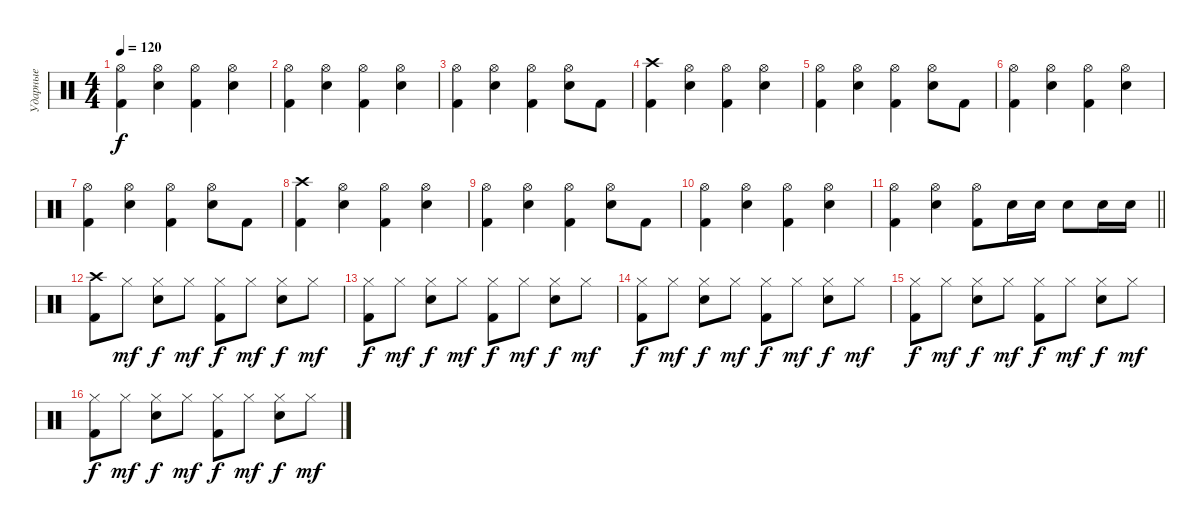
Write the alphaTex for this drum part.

\track ("Ударные" "Ударные") {instrument percussion}
\staff {score}
\articulation defaults
\ts (4 4)
\tempo 120
\clef neutral
\ks c
("Kick (hit) 2" "Hi-Hat (open)").4{dy f} ("Hi-Hat (open)" "Snare (hit) 2").4 ("Kick (hit) 2" "Hi-Hat (open)").4 ("Hi-Hat (open)" "Snare (hit) 2").4 |
("Kick (hit) 2" "Hi-Hat (open)").4 ("Hi-Hat (open)" "Snare (hit) 2").4 ("Kick (hit) 2" "Hi-Hat (open)").4 ("Hi-Hat (open)" "Snare (hit) 2").4 |
("Kick (hit) 2" "Hi-Hat (open)").4 ("Hi-Hat (open)" "Snare (hit) 2").4 ("Kick (hit) 2" "Hi-Hat (open)").4 ("Hi-Hat (open)" "Snare (hit) 2").8 "Kick (hit) 2".8 |
("Kick (hit) 2" "Crash high (hit)").4 ("Hi-Hat (open)" "Snare (hit) 2").4 ("Kick (hit) 2" "Hi-Hat (open)").4 ("Hi-Hat (open)" "Snare (hit) 2").4 |
("Kick (hit) 2" "Hi-Hat (open)").4 ("Hi-Hat (open)" "Snare (hit) 2").4 ("Kick (hit) 2" "Hi-Hat (open)").4 ("Hi-Hat (open)" "Snare (hit) 2").8 "Kick (hit) 2".8 |
("Kick (hit) 2" "Hi-Hat (open)").4 ("Hi-Hat (open)" "Snare (hit) 2").4 ("Kick (hit) 2" "Hi-Hat (open)").4 ("Hi-Hat (open)" "Snare (hit) 2").4 |
("Kick (hit) 2" "Hi-Hat (open)").4 ("Hi-Hat (open)" "Snare (hit) 2").4 ("Kick (hit) 2" "Hi-Hat (open)").4 ("Hi-Hat (open)" "Snare (hit) 2").8 "Kick (hit) 2".8 |
("Kick (hit) 2" "Crash high (hit)").4 ("Hi-Hat (open)" "Snare (hit) 2").4 ("Kick (hit) 2" "Hi-Hat (open)").4 ("Hi-Hat (open)" "Snare (hit) 2").4 |
("Kick (hit) 2" "Hi-Hat (open)").4 ("Hi-Hat (open)" "Snare (hit) 2").4 ("Kick (hit) 2" "Hi-Hat (open)").4 ("Hi-Hat (open)" "Snare (hit) 2").8 "Kick (hit) 2".8 |
("Kick (hit) 2" "Hi-Hat (open)").4 ("Hi-Hat (open)" "Snare (hit) 2").4 ("Kick (hit) 2" "Hi-Hat (open)").4 ("Hi-Hat (open)" "Snare (hit) 2").4 |
\barLineRight lightlight
("Kick (hit) 2" "Hi-Hat (open)").4 ("Hi-Hat (open)" "Snare (hit) 2").4 ("Kick (hit) 2" "Hi-Hat (open)").8 "Snare (hit) 2".16 "Snare (hit) 2".16 "Snare (hit) 2".8 "Snare (hit) 2".16 "Snare (hit) 2".16 |
("Kick (hit) 2" "Crash high (hit)").8 "Hi-Hat (closed)".8{dy mf} ("Hi-Hat (closed)" "Snare (hit) 2").8{dy f} "Hi-Hat (closed)".8{dy mf} ("Kick (hit) 2" "Hi-Hat (closed)").8{dy f} "Hi-Hat (closed)".8{dy mf} ("Hi-Hat (closed)" "Snare (hit) 2").8{dy f} "Hi-Hat (closed)".8{dy mf} |
("Kick (hit) 2" "Hi-Hat (closed)").8{dy f} "Hi-Hat (closed)".8{dy mf} ("Hi-Hat (closed)" "Snare (hit) 2").8{dy f} "Hi-Hat (closed)".8{dy mf} ("Kick (hit) 2" "Hi-Hat (closed)").8{dy f} "Hi-Hat (closed)".8{dy mf} ("Hi-Hat (closed)" "Snare (hit) 2").8{dy f} "Hi-Hat (closed)".8{dy mf} |
("Kick (hit) 2" "Hi-Hat (closed)").8{dy f} "Hi-Hat (closed)".8{dy mf} ("Hi-Hat (closed)" "Snare (hit) 2").8{dy f} "Hi-Hat (closed)".8{dy mf} ("Kick (hit) 2" "Hi-Hat (closed)").8{dy f} "Hi-Hat (closed)".8{dy mf} ("Hi-Hat (closed)" "Snare (hit) 2").8{dy f} "Hi-Hat (closed)".8{dy mf} |
("Kick (hit) 2" "Hi-Hat (closed)").8{dy f} "Hi-Hat (closed)".8{dy mf} ("Hi-Hat (closed)" "Snare (hit) 2").8{dy f} "Hi-Hat (closed)".8{dy mf} ("Kick (hit) 2" "Hi-Hat (closed)").8{dy f} "Hi-Hat (closed)".8{dy mf} ("Hi-Hat (closed)" "Snare (hit) 2").8{dy f} "Hi-Hat (closed)".8{dy mf} |
("Kick (hit) 2" "Hi-Hat (closed)").8{dy f} "Hi-Hat (closed)".8{dy mf} ("Hi-Hat (closed)" "Snare (hit) 2").8{dy f} "Hi-Hat (closed)".8{dy mf} ("Kick (hit) 2" "Hi-Hat (closed)").8{dy f} "Hi-Hat (closed)".8{dy mf} ("Hi-Hat (closed)" "Snare (hit) 2").8{dy f} "Hi-Hat (closed)".8{dy mf}
